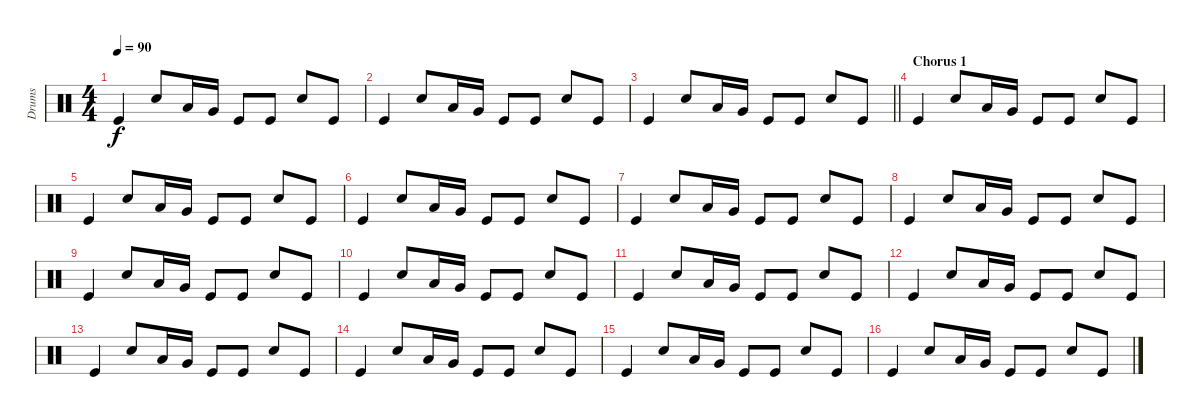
\track ("Drums" "Drums") {instrument percussion}
\staff {score}
\articulation defaults
\ts (4 4)
\tempo 90
\clef neutral
\ks aminor "Kick (hit)".4{dy f} "Hand Clap (hit)".8 "Low Tom (hit)".16 "Very Low Tom (hit)".16 "Kick (hit)".8 "Kick (hit)".8 "Hand Clap (hit)".8 "Kick (hit)".8
|
"Kick (hit)".4 "Hand Clap (hit)".8 "Low Tom (hit)".16 "Very Low Tom (hit)".16 "Kick (hit)".8 "Kick (hit)".8 "Hand Clap (hit)".8 "Kick (hit)".8 |
\barLineRight lightlight "Kick (hit)".4 "Hand Clap (hit)".8 "Low Tom (hit)".16 "Very Low Tom (hit)".16 "Kick (hit)".8 "Kick (hit)".8 "Hand Clap (hit)".8 "Kick (hit)".8
|
\section ("" "Chorus 1")
"Kick (hit)".4 "Hand Clap (hit)".8 "Low Tom (hit)".16 "Very Low Tom (hit)".16 "Kick (hit)".8 "Kick (hit)".8 "Hand Clap (hit)".8 "Kick (hit)".8 |
"Kick (hit)".4 "Hand Clap (hit)".8 "Low Tom (hit)".16 "Very Low Tom (hit)".16 "Kick (hit)".8 "Kick (hit)".8 "Hand Clap (hit)".8 "Kick (hit)".8 |
"Kick (hit)".4 "Hand Clap (hit)".8 "Low Tom (hit)".16 "Very Low Tom (hit)".16 "Kick (hit)".8 "Kick (hit)".8 "Hand Clap (hit)".8 "Kick (hit)".8 |
"Kick (hit)".4 "Hand Clap (hit)".8 "Low Tom (hit)".16 "Very Low Tom (hit)".16 "Kick (hit)".8 "Kick (hit)".8 "Hand Clap (hit)".8 "Kick (hit)".8 |
"Kick (hit)".4 "Hand Clap (hit)".8 "Low Tom (hit)".16 "Very Low Tom (hit)".16 "Kick (hit)".8 "Kick (hit)".8 "Hand Clap (hit)".8 "Kick (hit)".8 |
"Kick (hit)".4 "Hand Clap (hit)".8 "Low Tom (hit)".16 "Very Low Tom (hit)".16 "Kick (hit)".8 "Kick (hit)".8 "Hand Clap (hit)".8 "Kick (hit)".8 |
"Kick (hit)".4 "Hand Clap (hit)".8 "Low Tom (hit)".16 "Very Low Tom (hit)".16 "Kick (hit)".8 "Kick (hit)".8 "Hand Clap (hit)".8 "Kick (hit)".8 |
"Kick (hit)".4 "Hand Clap (hit)".8 "Low Tom (hit)".16 "Very Low Tom (hit)".16 "Kick (hit)".8 "Kick (hit)".8 "Hand Clap (hit)".8 "Kick (hit)".8 |
"Kick (hit)".4 "Hand Clap (hit)".8 "Low Tom (hit)".16 "Very Low Tom (hit)".16 "Kick (hit)".8 "Kick (hit)".8 "Hand Clap (hit)".8 "Kick (hit)".8 |
"Kick (hit)".4 "Hand Clap (hit)".8 "Low Tom (hit)".16 "Very Low Tom (hit)".16 "Kick (hit)".8 "Kick (hit)".8 "Hand Clap (hit)".8 "Kick (hit)".8 |
"Kick (hit)".4 "Hand Clap (hit)".8 "Low Tom (hit)".16 "Very Low Tom (hit)".16 "Kick (hit)".8 "Kick (hit)".8 "Hand Clap (hit)".8 "Kick (hit)".8 |
"Kick (hit)".4 "Hand Clap (hit)".8 "Low Tom (hit)".16 "Very Low Tom (hit)".16 "Kick (hit)".8 "Kick (hit)".8 "Hand Clap (hit)".8 "Kick (hit)".8 |
"Kick (hit)".4 "Hand Clap (hit)".8 "Low Tom (hit)".16 "Very Low Tom (hit)".16 "Kick (hit)".8 "Kick (hit)".8 "Hand Clap (hit)".8 "Kick (hit)".8
